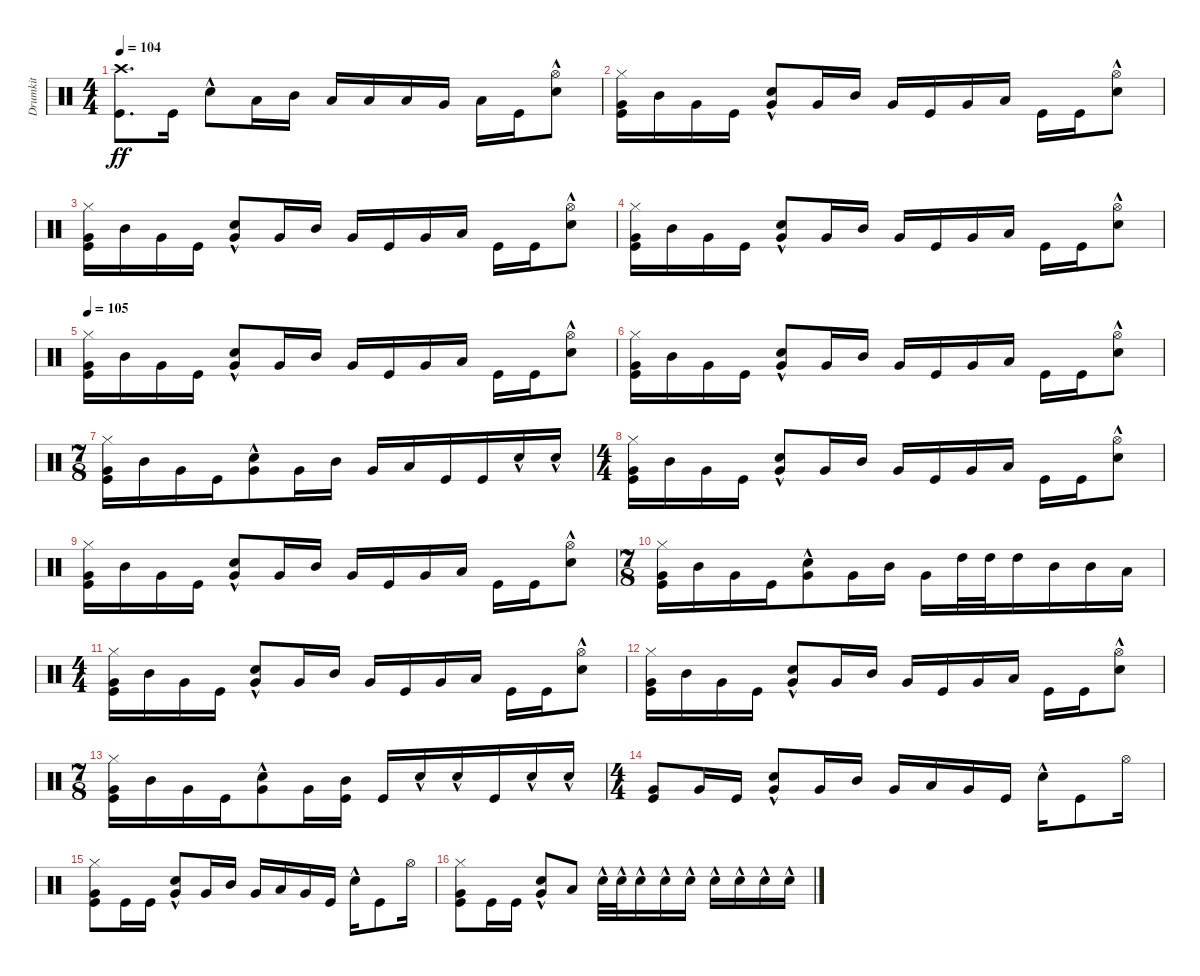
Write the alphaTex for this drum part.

\track ("Drumkit" "Drumkit") {instrument percussion}
\staff {score}
\articulation defaults
\ts (4 4)
\tempo 104
\clef neutral
\ks aminor
("Kick (hit)" "Crash high (hit)").8{d dy ff} "Kick (hit)".16 "Snare (hit) 2"{hac}.8 "Low Floor Tom (hit)".16 "Mid Tom (hit)".16 "Low Floor Tom (hit)".16 "Low Tom (hit)".16 "Low Floor Tom (hit)".16 "Very Low Tom (hit)".16 "Low Floor Tom (hit)".16 "Kick (hit)".16 ("Snare (hit) 2"{hac} "Hi-Hat (open)").8 |
("Hi-Hat (closed)" "Kick (hit)" "Very Low Tom (hit)").16 "Mid Tom (hit)".16 "Very Low Tom (hit)".16 "Kick (hit)".16 ("Very Low Tom (hit)" "Snare (hit) 2"{hac}).8 "Very Low Tom (hit)".16 "Mid Tom (hit)".16 "Very Low Tom (hit)".16 "Kick (hit)".16 "Very Low Tom (hit)".16 "Low Tom (hit)".16 "Kick (hit)".16 "Kick (hit)".16 ("Snare (hit) 2"{hac} "Hi-Hat (open)").8 |
("Hi-Hat (closed)" "Kick (hit)" "Very Low Tom (hit)").16 "Mid Tom (hit)".16 "Very Low Tom (hit)".16 "Kick (hit)".16 ("Very Low Tom (hit)" "Snare (hit) 2"{hac}).8 "Very Low Tom (hit)".16 "Mid Tom (hit)".16 "Very Low Tom (hit)".16 "Kick (hit)".16 "Very Low Tom (hit)".16 "Low Tom (hit)".16 "Kick (hit)".16 "Kick (hit)".16 ("Snare (hit) 2"{hac} "Hi-Hat (open)").8 |
("Hi-Hat (closed)" "Kick (hit)" "Very Low Tom (hit)").16 "Mid Tom (hit)".16 "Very Low Tom (hit)".16 "Kick (hit)".16 ("Very Low Tom (hit)" "Snare (hit) 2"{hac}).8 "Very Low Tom (hit)".16 "Mid Tom (hit)".16 "Very Low Tom (hit)".16 "Kick (hit)".16 "Very Low Tom (hit)".16 "Low Tom (hit)".16 "Kick (hit)".16 "Kick (hit)".16 ("Snare (hit) 2"{hac} "Hi-Hat (open)").8 |
\tempo 105
("Hi-Hat (closed)" "Kick (hit)" "Very Low Tom (hit)").16 "Mid Tom (hit)".16 "Very Low Tom (hit)".16 "Kick (hit)".16 ("Very Low Tom (hit)" "Snare (hit) 2"{hac}).8 "Very Low Tom (hit)".16 "Mid Tom (hit)".16 "Very Low Tom (hit)".16 "Kick (hit)".16 "Very Low Tom (hit)".16 "Low Tom (hit)".16 "Kick (hit)".16 "Kick (hit)".16 ("Snare (hit) 2"{hac} "Hi-Hat (open)").8 |
("Hi-Hat (closed)" "Kick (hit)" "Very Low Tom (hit)").16 "Mid Tom (hit)".16 "Very Low Tom (hit)".16 "Kick (hit)".16 ("Very Low Tom (hit)" "Snare (hit) 2"{hac}).8 "Very Low Tom (hit)".16 "Mid Tom (hit)".16 "Very Low Tom (hit)".16 "Kick (hit)".16 "Very Low Tom (hit)".16 "Low Tom (hit)".16 "Kick (hit)".16 "Kick (hit)".16 ("Snare (hit) 2"{hac} "Hi-Hat (open)").8 |
\ts (7 8)
("Hi-Hat (closed)" "Kick (hit)" "Very Low Tom (hit)").16 "Mid Tom (hit)".16 "Very Low Tom (hit)".16 "Kick (hit)".16 ("Very Low Tom (hit)" "Snare (hit) 2"{hac}).8 "Very Low Tom (hit)".16 "Mid Tom (hit)".16 "Very Low Tom (hit)".16 "Low Tom (hit)".16 "Kick (hit)".16 "Kick (hit)".16 "Snare (hit) 2"{hac}.16 "Snare (hit) 2"{hac}.16 |
\ts (4 4)
("Hi-Hat (closed)" "Kick (hit)" "Very Low Tom (hit)").16 "Mid Tom (hit)".16 "Very Low Tom (hit)".16 "Kick (hit)".16 ("Very Low Tom (hit)" "Snare (hit) 2"{hac}).8 "Very Low Tom (hit)".16 "Mid Tom (hit)".16 "Very Low Tom (hit)".16 "Kick (hit)".16 "Very Low Tom (hit)".16 "Low Tom (hit)".16 "Kick (hit)".16 "Kick (hit)".16 ("Snare (hit) 2"{hac} "Hi-Hat (open)").8 |
("Hi-Hat (closed)" "Kick (hit)" "Very Low Tom (hit)").16 "Mid Tom (hit)".16 "Very Low Tom (hit)".16 "Kick (hit)".16 ("Very Low Tom (hit)" "Snare (hit) 2"{hac}).8 "Very Low Tom (hit)".16 "Mid Tom (hit)".16 "Very Low Tom (hit)".16 "Kick (hit)".16 "Very Low Tom (hit)".16 "Low Tom (hit)".16 "Kick (hit)".16 "Kick (hit)".16 ("Snare (hit) 2"{hac} "Hi-Hat (open)").8 |
\ts (7 8)
("Hi-Hat (closed)" "Kick (hit)" "Very Low Tom (hit)").16 "Mid Tom (hit)".16 "Very Low Tom (hit)".16 "Kick (hit)".16 ("Very Low Tom (hit)" "Snare (hit) 2"{hac}).8 "Very Low Tom (hit)".16 "Mid Tom (hit)".16 "Very Low Tom (hit)".16 "High Tom (hit)".32 "High Tom (hit)".32 "High Tom (hit)".16 "Mid Tom (hit)".16 "Mid Tom (hit)".16 "Low Tom (hit)".16 |
\ts (4 4)
("Hi-Hat (closed)" "Kick (hit)" "Very Low Tom (hit)").16 "Mid Tom (hit)".16 "Very Low Tom (hit)".16 "Kick (hit)".16 ("Very Low Tom (hit)" "Snare (hit) 2"{hac}).8 "Very Low Tom (hit)".16 "Mid Tom (hit)".16 "Very Low Tom (hit)".16 "Kick (hit)".16 "Very Low Tom (hit)".16 "Low Tom (hit)".16 "Kick (hit)".16 "Kick (hit)".16 ("Snare (hit) 2"{hac} "Hi-Hat (open)").8 |
("Hi-Hat (closed)" "Kick (hit)" "Very Low Tom (hit)").16 "Mid Tom (hit)".16 "Very Low Tom (hit)".16 "Kick (hit)".16 ("Very Low Tom (hit)" "Snare (hit) 2"{hac}).8 "Very Low Tom (hit)".16 "Mid Tom (hit)".16 "Very Low Tom (hit)".16 "Kick (hit)".16 "Very Low Tom (hit)".16 "Low Tom (hit)".16 "Kick (hit)".16 "Kick (hit)".16 ("Snare (hit) 2"{hac} "Hi-Hat (open)").8 |
\ts (7 8)
("Hi-Hat (closed)" "Kick (hit)" "Very Low Tom (hit)").16 "Mid Tom (hit)".16 "Very Low Tom (hit)".16 "Kick (hit)".16 ("Very Low Tom (hit)" "Snare (hit) 2"{hac}).8 "Very Low Tom (hit)".16 ("Kick (hit)" "Mid Tom (hit)").16 "Kick (hit)".16 "Snare (hit) 2"{hac}.16 "Snare (hit) 2"{hac}.16 "Kick (hit)".16 "Snare (hit) 2"{hac}.16 "Snare (hit) 2"{hac}.16 |
\ts (4 4)
("Kick (hit)" "Very Low Tom (hit)").8 "Very Low Tom (hit)".16 "Kick (hit)".16 ("Very Low Tom (hit)" "Snare (hit) 2"{hac}).8 "Very Low Tom (hit)".16 "Mid Tom (hit)".16 "Very Low Tom (hit)".16 "Low Tom (hit)".16 "Very Low Tom (hit)".16 "Kick (hit)".16 "Snare (hit) 2"{hac}.16 "Kick (hit)".8 "Hi-Hat (open)".16 |
("Hi-Hat (closed)" "Kick (hit)" "Very Low Tom (hit)").8 "Kick (hit)".16 "Kick (hit)".16 ("Very Low Tom (hit)" "Snare (hit) 2"{hac}).8 "Very Low Tom (hit)".16 "Mid Tom (hit)".16 "Very Low Tom (hit)".16 "Low Tom (hit)".16 "Very Low Tom (hit)".16 "Kick (hit)".16 "Snare (hit) 2"{hac}.16 "Kick (hit)".8 "Hi-Hat (open)".16 |
("Hi-Hat (closed)" "Kick (hit)" "Very Low Tom (hit)").8 "Kick (hit)".16 "Kick (hit)".16 ("Very Low Tom (hit)" "Snare (hit) 2"{hac}).8 "Low Tom (hit)".8 "Snare (hit) 2"{hac}.32 "Snare (hit) 2"{hac}.32 "Snare (hit) 2"{hac}.16 "Snare (hit) 2"{hac}.16 "Snare (hit) 2"{hac}.16 "Snare (hit) 2"{hac}.16 "Snare (hit) 2"{hac}.16 "Snare (hit) 2"{hac}.16 "Snare (hit) 2"{hac}.16
